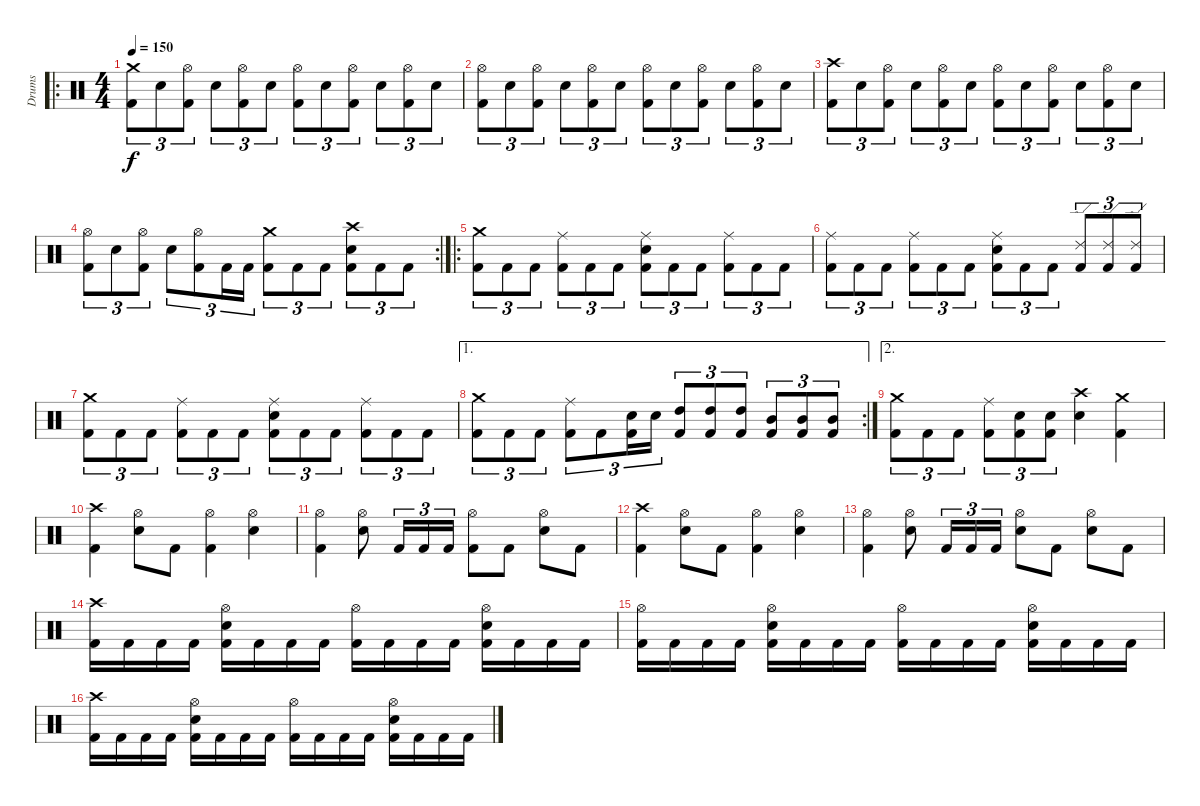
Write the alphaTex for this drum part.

\track ("Drums" "Drums") {instrument percussion}
\staff {score}
\articulation defaults
\ro
\ts (4 4)
\tempo 150
\clef neutral
\ks c
("Kick (hit) 2" "Crash medium (hit)").8{tu (3 2) dy f} "Electric Snare (hit)".8{tu (3 2)} ("Kick (hit) 2" "Hi-Hat (open)").8{tu (3 2)} "Electric Snare (hit)".8{tu (3 2)} ("Kick (hit) 2" "Hi-Hat (open)").8{tu (3 2)} "Electric Snare (hit)".8{tu (3 2)} ("Kick (hit) 2" "Hi-Hat (open)").8{tu (3 2)} "Electric Snare (hit)".8{tu (3 2)} ("Kick (hit) 2" "Hi-Hat (open)").8{tu (3 2)} "Electric Snare (hit)".8{tu (3 2)} ("Kick (hit) 2" "Hi-Hat (open)").8{tu (3 2)} "Electric Snare (hit)".8{tu (3 2)} |
("Kick (hit) 2" "Hi-Hat (open)").8{tu (3 2)} "Electric Snare (hit)".8{tu (3 2)} ("Kick (hit) 2" "Hi-Hat (open)").8{tu (3 2)} "Electric Snare (hit)".8{tu (3 2)} ("Kick (hit) 2" "Hi-Hat (open)").8{tu (3 2)} "Electric Snare (hit)".8{tu (3 2)} ("Kick (hit) 2" "Hi-Hat (open)").8{tu (3 2)} "Electric Snare (hit)".8{tu (3 2)} ("Kick (hit) 2" "Hi-Hat (open)").8{tu (3 2)} "Electric Snare (hit)".8{tu (3 2)} ("Kick (hit) 2" "Hi-Hat (open)").8{tu (3 2)} "Electric Snare (hit)".8{tu (3 2)} |
("Kick (hit) 2" "Crash high (hit)").8{tu (3 2)} "Electric Snare (hit)".8{tu (3 2)} ("Kick (hit) 2" "Hi-Hat (open)").8{tu (3 2)} "Electric Snare (hit)".8{tu (3 2)} ("Kick (hit) 2" "Hi-Hat (open)").8{tu (3 2)} "Electric Snare (hit)".8{tu (3 2)} ("Kick (hit) 2" "Hi-Hat (open)").8{tu (3 2)} "Electric Snare (hit)".8{tu (3 2)} ("Kick (hit) 2" "Hi-Hat (open)").8{tu (3 2)} "Electric Snare (hit)".8{tu (3 2)} ("Kick (hit) 2" "Hi-Hat (open)").8{tu (3 2)} "Electric Snare (hit)".8{tu (3 2)} |
\rc 2
("Kick (hit) 2" "Hi-Hat (open)").8{tu (3 2)} "Electric Snare (hit)".8{tu (3 2)} ("Kick (hit) 2" "Hi-Hat (open)").8{tu (3 2)} "Electric Snare (hit)".8{tu (3 2)} ("Kick (hit) 2" "Hi-Hat (open)").8{tu (3 2)} "Kick (hit) 2".16{tu (3 2)} "Kick (hit) 2".16{tu (3 2)} ("Kick (hit) 2" "Crash medium (hit)").8{tu (3 2)} "Kick (hit) 2".8{tu (3 2)} "Kick (hit) 2".8{tu (3 2)} ("Kick (hit) 2" "Electric Snare (hit)" "Crash high (hit)").8{tu (3 2)} "Kick (hit) 2".8{tu (3 2)} "Kick (hit) 2".8{tu (3 2)} |
\ro
("Kick (hit) 2" "Crash medium (hit)").8{tu (3 2)} "Kick (hit) 2".8{tu (3 2)} "Kick (hit) 2".8{tu (3 2)} ("Kick (hit) 2" "Ride (middle)").8{tu (3 2)} "Kick (hit) 2".8{tu (3 2)} "Kick (hit) 2".8{tu (3 2)} ("Kick (hit) 2" "Electric Snare (hit)" "Ride (middle)").8{tu (3 2)} "Kick (hit) 2".8{tu (3 2)} "Kick (hit) 2".8{tu (3 2)} ("Kick (hit) 2" "Ride (middle)").8{tu (3 2)} "Kick (hit) 2".8{tu (3 2)} "Kick (hit) 2".8{tu (3 2)} |
("Kick (hit) 2" "Ride (middle)").8{tu (3 2)} "Kick (hit) 2".8{tu (3 2)} "Kick (hit) 2".8{tu (3 2)} ("Kick (hit) 2" "Ride (middle)").8{tu (3 2)} "Kick (hit) 2".8{tu (3 2)} "Kick (hit) 2".8{tu (3 2)} ("Kick (hit) 2" "Electric Snare (hit)" "Ride (middle)").8{tu (3 2)} "Kick (hit) 2".8{tu (3 2)} "Kick (hit) 2".8{tu (3 2)} ("Kick (hit) 2" "Ride (edge) 2").8{tu (3 2)} ("Kick (hit) 2" "Ride (edge) 2").8{tu (3 2)} ("Kick (hit) 2" "Ride (edge) 2").8{tu (3 2)} |
("Kick (hit) 2" "Crash medium (hit)").8{tu (3 2)} "Kick (hit) 2".8{tu (3 2)} "Kick (hit) 2".8{tu (3 2)} ("Kick (hit) 2" "Ride (middle)").8{tu (3 2)} "Kick (hit) 2".8{tu (3 2)} "Kick (hit) 2".8{tu (3 2)} ("Kick (hit) 2" "Electric Snare (hit)" "Ride (middle)").8{tu (3 2)} "Kick (hit) 2".8{tu (3 2)} "Kick (hit) 2".8{tu (3 2)} ("Kick (hit) 2" "Ride (middle)").8{tu (3 2)} "Kick (hit) 2".8{tu (3 2)} "Kick (hit) 2".8{tu (3 2)} |
\ae 1
\rc 2
("Kick (hit) 2" "Crash medium (hit)").8{tu (3 2)} "Kick (hit) 2".8{tu (3 2)} "Kick (hit) 2".8{tu (3 2)} ("Kick (hit) 2" "Ride (middle)").8{tu (3 2)} "Kick (hit) 2".8{tu (3 2)} ("Kick (hit) 2" "Electric Snare (hit)").16{tu (3 2)} "Electric Snare (hit)".16{tu (3 2)} ("Kick (hit) 2" "High Tom (hit)").8{tu (3 2)} ("Kick (hit) 2" "High Tom (hit)").8{tu (3 2)} ("Kick (hit) 2" "High Tom (hit)").8{tu (3 2)} ("Kick (hit) 2" "Mid Tom (hit)").8{tu (3 2)} ("Kick (hit) 2" "Mid Tom (hit)").8{tu (3 2)} ("Kick (hit) 2" "Mid Tom (hit)").8{tu (3 2)} |
\ae 2
("Kick (hit) 2" "Crash medium (hit)").8{tu (3 2)} "Kick (hit) 2".8{tu (3 2)} "Kick (hit) 2".8{tu (3 2)} ("Kick (hit) 2" "Ride (middle)").8{tu (3 2)} ("Kick (hit) 2" "Electric Snare (hit)").8{tu (3 2)} ("Kick (hit) 2" "Electric Snare (hit)").8{tu (3 2)} ("Electric Snare (hit)" "Crash high (hit)").4 ("Kick (hit) 2" "Crash medium (hit)").4 |
("Kick (hit) 2" "Crash high (hit)").4 ("Electric Snare (hit)" "Hi-Hat (open)").8 "Kick (hit) 2".8 ("Kick (hit) 2" "Hi-Hat (open)").4 ("Electric Snare (hit)" "Hi-Hat (open)").4 |
("Kick (hit) 2" "Hi-Hat (open)").4 ("Electric Snare (hit)" "Hi-Hat (open)").8 "Kick (hit) 2".16{tu (3 2)} "Kick (hit) 2".16{tu (3 2)} "Kick (hit) 2".16{tu (3 2)} ("Kick (hit) 2" "Hi-Hat (open)").8 "Kick (hit) 2".8 ("Electric Snare (hit)" "Hi-Hat (open)").8 "Kick (hit) 2".8 |
("Kick (hit) 2" "Crash high (hit)").4 ("Electric Snare (hit)" "Hi-Hat (open)").8 "Kick (hit) 2".8 ("Kick (hit) 2" "Hi-Hat (open)").4 ("Electric Snare (hit)" "Hi-Hat (open)").4 |
("Kick (hit) 2" "Hi-Hat (open)").4 ("Electric Snare (hit)" "Hi-Hat (open)").8 "Kick (hit) 2".16{tu (3 2)} "Kick (hit) 2".16{tu (3 2)} "Kick (hit) 2".16{tu (3 2)} ("Electric Snare (hit)" "Hi-Hat (open)").8 "Kick (hit) 2".8 ("Electric Snare (hit)" "Hi-Hat (open)").8 "Kick (hit) 2".8 |
("Kick (hit) 2" "Crash high (hit)").16 "Kick (hit) 2".16 "Kick (hit) 2".16 "Kick (hit) 2".16 ("Kick (hit) 2" "Electric Snare (hit)" "Hi-Hat (open)").16 "Kick (hit) 2".16 "Kick (hit) 2".16 "Kick (hit) 2".16 ("Kick (hit) 2" "Hi-Hat (open)").16 "Kick (hit) 2".16 "Kick (hit) 2".16 "Kick (hit) 2".16 ("Kick (hit) 2" "Electric Snare (hit)" "Hi-Hat (open)").16 "Kick (hit) 2".16 "Kick (hit) 2".16 "Kick (hit) 2".16 |
("Kick (hit) 2" "Hi-Hat (open)").16 "Kick (hit) 2".16 "Kick (hit) 2".16 "Kick (hit) 2".16 ("Kick (hit) 2" "Electric Snare (hit)" "Hi-Hat (open)").16 "Kick (hit) 2".16 "Kick (hit) 2".16 "Kick (hit) 2".16 ("Kick (hit) 2" "Hi-Hat (open)").16 "Kick (hit) 2".16 "Kick (hit) 2".16 "Kick (hit) 2".16 ("Kick (hit) 2" "Electric Snare (hit)" "Hi-Hat (open)").16 "Kick (hit) 2".16 "Kick (hit) 2".16 "Kick (hit) 2".16 |
("Kick (hit) 2" "Crash high (hit)").16 "Kick (hit) 2".16 "Kick (hit) 2".16 "Kick (hit) 2".16 ("Kick (hit) 2" "Electric Snare (hit)" "Hi-Hat (open)").16 "Kick (hit) 2".16 "Kick (hit) 2".16 "Kick (hit) 2".16 ("Kick (hit) 2" "Hi-Hat (open)").16 "Kick (hit) 2".16 "Kick (hit) 2".16 "Kick (hit) 2".16 ("Kick (hit) 2" "Electric Snare (hit)" "Hi-Hat (open)").16 "Kick (hit) 2".16 "Kick (hit) 2".16 "Kick (hit) 2".16
